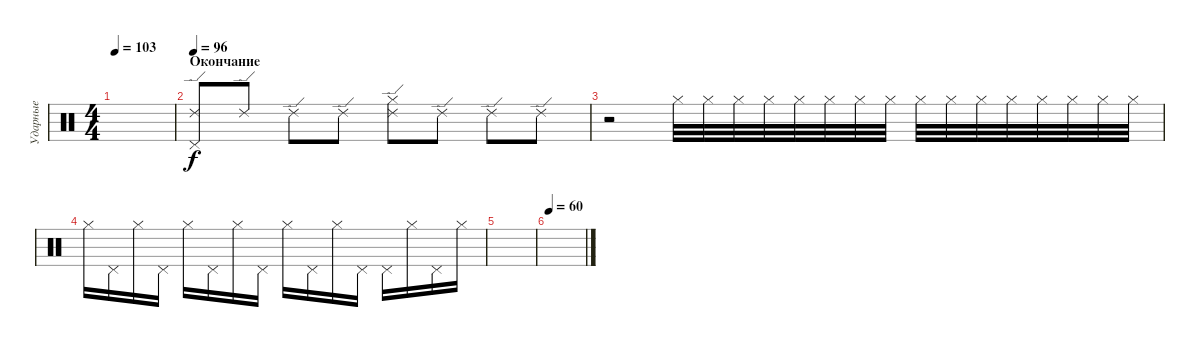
\track ("Ударные" "Ударные") {instrument percussion}
\staff {score}
\articulation defaults
\ts (4 4)
\tempo 103
\clef neutral
\ks c
|
\section ("" "Окончание")
\tempo 96
("Ride (edge) 2" "Pedal Hi-Hat (hit)").8{volume 9} "Ride (edge) 2".8 "Ride (edge) 2".8 "Ride (edge) 2".8 ("Ride (edge) 2" "Hi-Hat (closed)").8 "Ride (edge) 2".8 "Ride (edge) 2".8 "Ride (edge) 2".8 |
r.2{volume 5} "Hi-Hat (closed)".32 "Hi-Hat (closed)".32 "Hi-Hat (closed)".32 "Hi-Hat (closed)".32 "Hi-Hat (closed)".32 "Hi-Hat (closed)".32 "Hi-Hat (closed)".32 "Hi-Hat (closed)".32 "Hi-Hat (closed)".32 "Hi-Hat (closed)".32 "Hi-Hat (closed)".32 "Hi-Hat (closed)".32 "Hi-Hat (closed)".32 "Hi-Hat (closed)".32 "Hi-Hat (closed)".32 "Hi-Hat (closed)".32 |
"Hi-Hat (closed)".16 "Pedal Hi-Hat (hit)".16 "Hi-Hat (closed)".16 "Pedal Hi-Hat (hit)".16 "Hi-Hat (closed)".16 "Pedal Hi-Hat (hit)".16 "Hi-Hat (closed)".16 "Pedal Hi-Hat (hit)".16 "Hi-Hat (closed)".16 "Pedal Hi-Hat (hit)".16 "Hi-Hat (closed)".16 "Pedal Hi-Hat (hit)".16 "Pedal Hi-Hat (hit)".16 "Hi-Hat (closed)".16 "Pedal Hi-Hat (hit)".16 "Hi-Hat (closed)".16 |
|
\tempo 60
